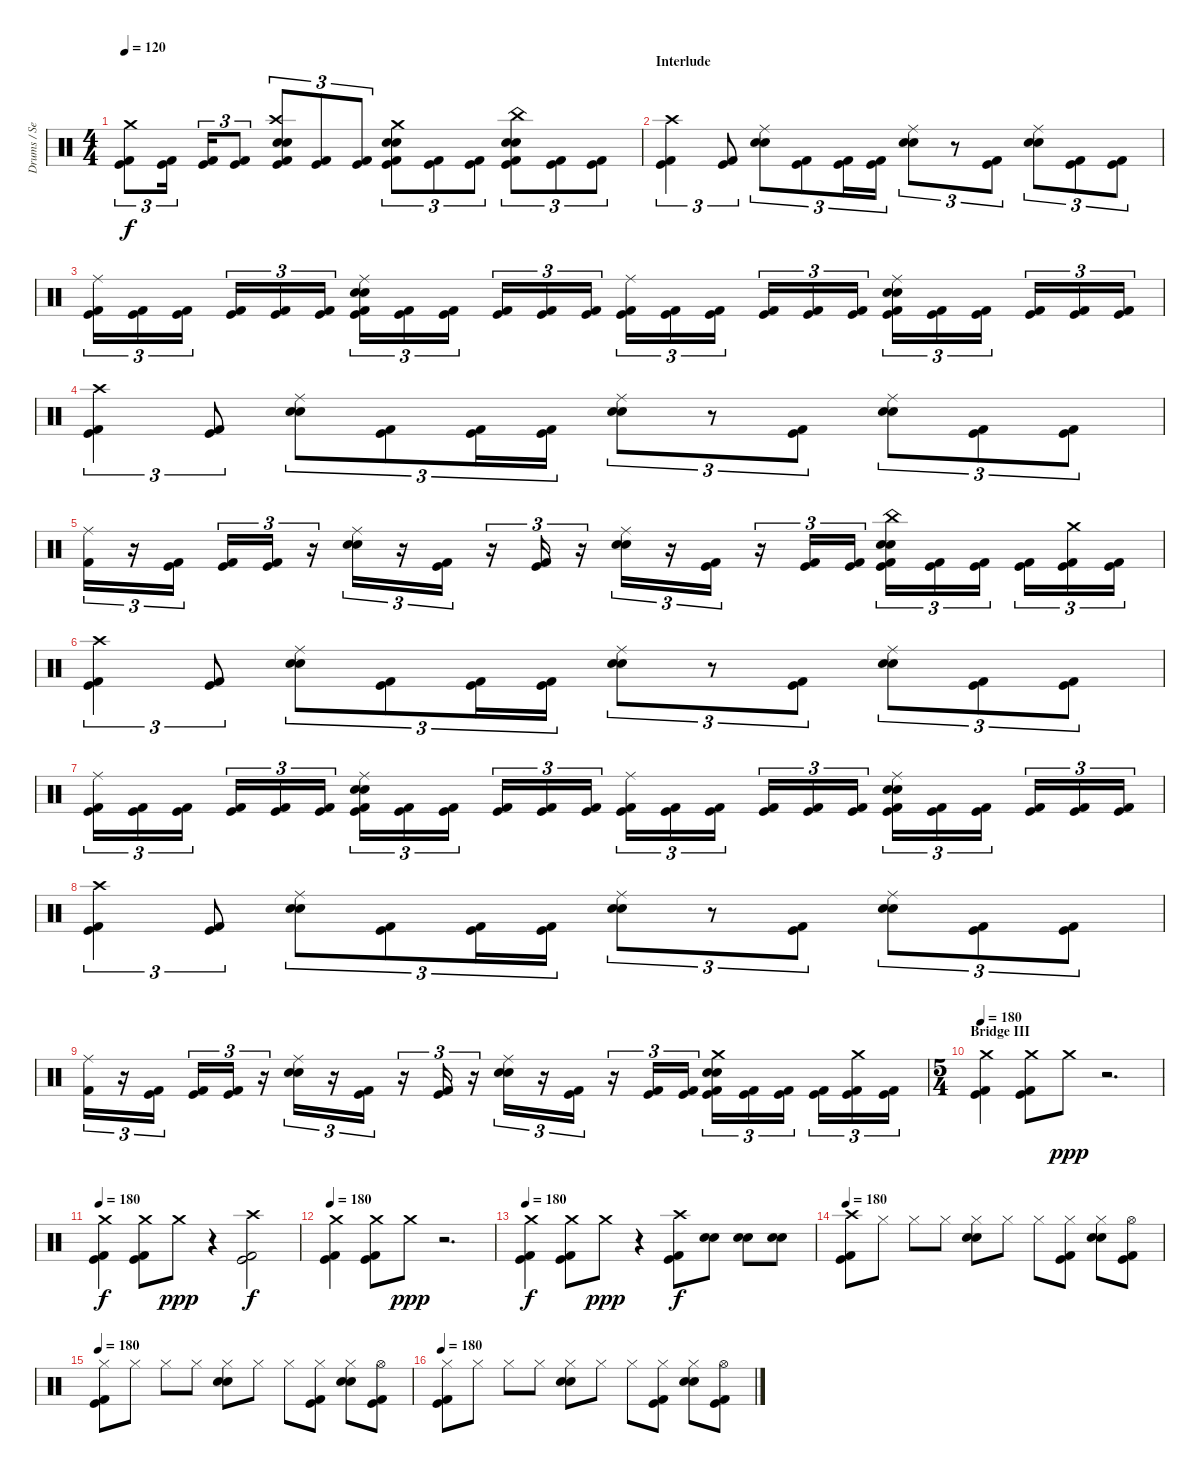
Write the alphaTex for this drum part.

\track ("Drums / Sean" "Drums / Se") {instrument percussion}
\staff {score}
\articulation defaults
\ts (4 4)
\tempo 120
\clef neutral
\ks c
("Crash medium (hit)" "Kick (hit)" "Kick (hit) 2").8{tu (3 2) dy f} ("Kick (hit)" "Kick (hit) 2").16{tu (3 2)} ("Kick (hit)" "Kick (hit) 2").16{tu (3 2)} ("Kick (hit)" "Kick (hit) 2").8{tu (3 2)} ("Crash high (hit)" "Electric Snare (hit)" "Snare (hit) 2" "Kick (hit)" "Kick (hit) 2").8{tu (3 2)} ("Kick (hit)" "Kick (hit) 2").8{tu (3 2)} ("Kick (hit)" "Kick (hit) 2").8{tu (3 2)} ("Crash medium (hit)" "Electric Snare (hit)" "Snare (hit) 2" "Kick (hit)" "Kick (hit) 2").8{tu (3 2)} ("Kick (hit)" "Kick (hit) 2").8{tu (3 2)} ("Kick (hit)" "Kick (hit) 2").8{tu (3 2)} ("China (hit)" "Electric Snare (hit)" "Snare (hit) 2" "Kick (hit)" "Kick (hit) 2").8{tu (3 2)} ("Kick (hit)" "Kick (hit) 2").8{tu (3 2)} ("Kick (hit)" "Kick (hit) 2").8{tu (3 2)} |
\section ("" "Interlude")
("Crash high (hit)" "Kick (hit)" "Kick (hit) 2").4{tu (3 2)} ("Kick (hit)" "Kick (hit) 2").8{tu (3 2)} ("Ride (middle)" "Electric Snare (hit)" "Snare (hit) 2").8{tu (3 2)} ("Kick (hit)" "Kick (hit) 2").8{tu (3 2)} ("Kick (hit)" "Kick (hit) 2").16{tu (3 2)} ("Kick (hit)" "Kick (hit) 2").16{tu (3 2)} ("Ride (middle)" "Electric Snare (hit)" "Snare (hit) 2").8{tu (3 2)} r.8{tu (3 2)} ("Kick (hit)" "Kick (hit) 2").8{tu (3 2)} ("Ride (middle)" "Electric Snare (hit)" "Snare (hit) 2").8{tu (3 2)} ("Kick (hit)" "Kick (hit) 2").8{tu (3 2)} ("Kick (hit)" "Kick (hit) 2").8{tu (3 2)} |
("Ride (middle)" "Kick (hit)" "Kick (hit) 2").16{tu (3 2)} ("Kick (hit)" "Kick (hit) 2").16{tu (3 2)} ("Kick (hit)" "Kick (hit) 2").16{tu (3 2)} ("Kick (hit)" "Kick (hit) 2").16{tu (3 2)} ("Kick (hit)" "Kick (hit) 2").16{tu (3 2)} ("Kick (hit)" "Kick (hit) 2").16{tu (3 2)} ("Ride (middle)" "Electric Snare (hit)" "Snare (hit) 2" "Kick (hit)" "Kick (hit) 2").16{tu (3 2)} ("Kick (hit)" "Kick (hit) 2").16{tu (3 2)} ("Kick (hit)" "Kick (hit) 2").16{tu (3 2)} ("Kick (hit)" "Kick (hit) 2").16{tu (3 2)} ("Kick (hit)" "Kick (hit) 2").16{tu (3 2)} ("Kick (hit)" "Kick (hit) 2").16{tu (3 2)} ("Ride (middle)" "Kick (hit)" "Kick (hit) 2").16{tu (3 2)} ("Kick (hit)" "Kick (hit) 2").16{tu (3 2)} ("Kick (hit)" "Kick (hit) 2").16{tu (3 2)} ("Kick (hit)" "Kick (hit) 2").16{tu (3 2)} ("Kick (hit)" "Kick (hit) 2").16{tu (3 2)} ("Kick (hit)" "Kick (hit) 2").16{tu (3 2)} ("Ride (middle)" "Electric Snare (hit)" "Snare (hit) 2" "Kick (hit)" "Kick (hit) 2").16{tu (3 2)} ("Kick (hit)" "Kick (hit) 2").16{tu (3 2)} ("Kick (hit)" "Kick (hit) 2").16{tu (3 2)} ("Kick (hit)" "Kick (hit) 2").16{tu (3 2)} ("Kick (hit)" "Kick (hit) 2").16{tu (3 2)} ("Kick (hit)" "Kick (hit) 2").16{tu (3 2)} |
("Crash high (hit)" "Kick (hit)" "Kick (hit) 2").4{tu (3 2)} ("Kick (hit)" "Kick (hit) 2").8{tu (3 2)} ("Ride (middle)" "Electric Snare (hit)" "Snare (hit) 2").8{tu (3 2)} ("Kick (hit)" "Kick (hit) 2").8{tu (3 2)} ("Kick (hit)" "Kick (hit) 2").16{tu (3 2)} ("Kick (hit)" "Kick (hit) 2").16{tu (3 2)} ("Ride (middle)" "Electric Snare (hit)" "Snare (hit) 2").8{tu (3 2)} r.8{tu (3 2)} ("Kick (hit)" "Kick (hit) 2").8{tu (3 2)} ("Ride (middle)" "Electric Snare (hit)" "Snare (hit) 2").8{tu (3 2)} ("Kick (hit)" "Kick (hit) 2").8{tu (3 2)} ("Kick (hit)" "Kick (hit) 2").8{tu (3 2)} |
("Ride (middle)" "Kick (hit) 2").16{tu (3 2)} r.16{tu (3 2)} ("Kick (hit)" "Kick (hit) 2").16{tu (3 2)} ("Kick (hit)" "Kick (hit) 2").16{tu (3 2)} ("Kick (hit)" "Kick (hit) 2").16{tu (3 2)} r.16{tu (3 2)} ("Ride (middle)" "Electric Snare (hit)" "Snare (hit) 2").16{tu (3 2)} r.16{tu (3 2)} ("Kick (hit)" "Kick (hit) 2").16{tu (3 2)} r.16{tu (3 2)} ("Kick (hit)" "Kick (hit) 2").16{tu (3 2)} r.16{tu (3 2)} ("Ride (middle)" "Electric Snare (hit)" "Snare (hit) 2").16{tu (3 2)} r.16{tu (3 2)} ("Kick (hit)" "Kick (hit) 2").16{tu (3 2)} r.16{tu (3 2)} ("Kick (hit)" "Kick (hit) 2").16{tu (3 2)} ("Kick (hit)" "Kick (hit) 2").16{tu (3 2)} ("China (hit)" "Electric Snare (hit)" "Snare (hit) 2" "Kick (hit)" "Kick (hit) 2").16{tu (3 2)} ("Kick (hit)" "Kick (hit) 2").16{tu (3 2)} ("Kick (hit)" "Kick (hit) 2").16{tu (3 2)} ("Kick (hit)" "Kick (hit) 2").16{tu (3 2)} ("Crash medium (hit)" "Kick (hit)" "Kick (hit) 2").16{tu (3 2)} ("Kick (hit)" "Kick (hit) 2").16{tu (3 2)} |
("Crash high (hit)" "Kick (hit)" "Kick (hit) 2").4{tu (3 2)} ("Kick (hit)" "Kick (hit) 2").8{tu (3 2)} ("Ride (middle)" "Electric Snare (hit)" "Snare (hit) 2").8{tu (3 2)} ("Kick (hit)" "Kick (hit) 2").8{tu (3 2)} ("Kick (hit)" "Kick (hit) 2").16{tu (3 2)} ("Kick (hit)" "Kick (hit) 2").16{tu (3 2)} ("Ride (middle)" "Electric Snare (hit)" "Snare (hit) 2").8{tu (3 2)} r.8{tu (3 2)} ("Kick (hit)" "Kick (hit) 2").8{tu (3 2)} ("Ride (middle)" "Electric Snare (hit)" "Snare (hit) 2").8{tu (3 2)} ("Kick (hit)" "Kick (hit) 2").8{tu (3 2)} ("Kick (hit)" "Kick (hit) 2").8{tu (3 2)} |
("Ride (middle)" "Kick (hit)" "Kick (hit) 2").16{tu (3 2)} ("Kick (hit)" "Kick (hit) 2").16{tu (3 2)} ("Kick (hit)" "Kick (hit) 2").16{tu (3 2)} ("Kick (hit)" "Kick (hit) 2").16{tu (3 2)} ("Kick (hit)" "Kick (hit) 2").16{tu (3 2)} ("Kick (hit)" "Kick (hit) 2").16{tu (3 2)} ("Ride (middle)" "Electric Snare (hit)" "Snare (hit) 2" "Kick (hit)" "Kick (hit) 2").16{tu (3 2)} ("Kick (hit)" "Kick (hit) 2").16{tu (3 2)} ("Kick (hit)" "Kick (hit) 2").16{tu (3 2)} ("Kick (hit)" "Kick (hit) 2").16{tu (3 2)} ("Kick (hit)" "Kick (hit) 2").16{tu (3 2)} ("Kick (hit)" "Kick (hit) 2").16{tu (3 2)} ("Ride (middle)" "Kick (hit)" "Kick (hit) 2").16{tu (3 2)} ("Kick (hit)" "Kick (hit) 2").16{tu (3 2)} ("Kick (hit)" "Kick (hit) 2").16{tu (3 2)} ("Kick (hit)" "Kick (hit) 2").16{tu (3 2)} ("Kick (hit)" "Kick (hit) 2").16{tu (3 2)} ("Kick (hit)" "Kick (hit) 2").16{tu (3 2)} ("Ride (middle)" "Electric Snare (hit)" "Snare (hit) 2" "Kick (hit)" "Kick (hit) 2").16{tu (3 2)} ("Kick (hit)" "Kick (hit) 2").16{tu (3 2)} ("Kick (hit)" "Kick (hit) 2").16{tu (3 2)} ("Kick (hit)" "Kick (hit) 2").16{tu (3 2)} ("Kick (hit)" "Kick (hit) 2").16{tu (3 2)} ("Kick (hit)" "Kick (hit) 2").16{tu (3 2)} |
("Crash high (hit)" "Kick (hit)" "Kick (hit) 2").4{tu (3 2)} ("Kick (hit)" "Kick (hit) 2").8{tu (3 2)} ("Ride (middle)" "Electric Snare (hit)" "Snare (hit) 2").8{tu (3 2)} ("Kick (hit)" "Kick (hit) 2").8{tu (3 2)} ("Kick (hit)" "Kick (hit) 2").16{tu (3 2)} ("Kick (hit)" "Kick (hit) 2").16{tu (3 2)} ("Ride (middle)" "Electric Snare (hit)" "Snare (hit) 2").8{tu (3 2)} r.8{tu (3 2)} ("Kick (hit)" "Kick (hit) 2").8{tu (3 2)} ("Ride (middle)" "Electric Snare (hit)" "Snare (hit) 2").8{tu (3 2)} ("Kick (hit)" "Kick (hit) 2").8{tu (3 2)} ("Kick (hit)" "Kick (hit) 2").8{tu (3 2)} |
("Ride (middle)" "Kick (hit) 2").16{tu (3 2)} r.16{tu (3 2)} ("Kick (hit)" "Kick (hit) 2").16{tu (3 2)} ("Kick (hit)" "Kick (hit) 2").16{tu (3 2)} ("Kick (hit)" "Kick (hit) 2").16{tu (3 2)} r.16{tu (3 2)} ("Ride (middle)" "Electric Snare (hit)" "Snare (hit) 2").16{tu (3 2)} r.16{tu (3 2)} ("Kick (hit)" "Kick (hit) 2").16{tu (3 2)} r.16{tu (3 2)} ("Kick (hit)" "Kick (hit) 2").16{tu (3 2)} r.16{tu (3 2)} ("Ride (middle)" "Electric Snare (hit)" "Snare (hit) 2").16{tu (3 2)} r.16{tu (3 2)} ("Kick (hit)" "Kick (hit) 2").16{tu (3 2)} r.16{tu (3 2)} ("Kick (hit)" "Kick (hit) 2").16{tu (3 2)} ("Kick (hit)" "Kick (hit) 2").16{tu (3 2)} ("Crash medium (hit)" "Electric Snare (hit)" "Snare (hit) 2" "Kick (hit)" "Kick (hit) 2").16{tu (3 2)} ("Kick (hit)" "Kick (hit) 2").16{tu (3 2)} ("Kick (hit)" "Kick (hit) 2").16{tu (3 2)} ("Kick (hit)" "Kick (hit) 2").16{tu (3 2)} ("Crash medium (hit)" "Kick (hit)" "Kick (hit) 2").16{tu (3 2)} ("Kick (hit)" "Kick (hit) 2").16{tu (3 2)} |
\ts (5 4)
\section ("" "Bridge III")
\tempo 180
("Crash medium (hit)" "Kick (hit)" "Kick (hit) 2").4 ("Crash medium (hit)" "Kick (hit)" "Kick (hit) 2").8 "Crash medium (hit)".8{dy ppp} r.2{d} |
\tempo 180
("Crash medium (hit)" "Kick (hit)" "Kick (hit) 2").4{dy f} ("Crash medium (hit)" "Kick (hit)" "Kick (hit) 2").8 "Crash medium (hit)".8{dy ppp} r.4 ("Crash high (hit)" "Kick (hit)" "Kick (hit) 2").2{dy f} |
\tempo 180
("Crash medium (hit)" "Kick (hit)" "Kick (hit) 2").4 ("Crash medium (hit)" "Kick (hit)" "Kick (hit) 2").8 "Crash medium (hit)".8{dy ppp} r.2{d} |
\tempo 180
("Crash medium (hit)" "Kick (hit)" "Kick (hit) 2").4{dy f} ("Crash medium (hit)" "Kick (hit)" "Kick (hit) 2").8 "Crash medium (hit)".8{dy ppp} r.4 ("Crash high (hit)" "Kick (hit)" "Kick (hit) 2").8{dy f} ("Electric Snare (hit)" "Snare (hit) 2").8 ("Electric Snare (hit)" "Snare (hit) 2").8 ("Electric Snare (hit)" "Snare (hit) 2").8 |
\tempo 180
("Crash high (hit)" "Kick (hit)" "Kick (hit) 2").8 "Hi-Hat (closed)".8 "Hi-Hat (closed)".8 "Hi-Hat (closed)".8 ("Hi-Hat (closed)" "Electric Snare (hit)" "Snare (hit) 2").8 "Hi-Hat (closed)".8 "Hi-Hat (closed)".8 ("Hi-Hat (closed)" "Kick (hit)" "Kick (hit) 2").8 ("Hi-Hat (closed)" "Electric Snare (hit)" "Snare (hit) 2").8 ("Hi-Hat (open)" "Kick (hit)" "Kick (hit) 2").8 |
\tempo 180
("Hi-Hat (closed)" "Kick (hit)" "Kick (hit) 2").8 "Hi-Hat (closed)".8 "Hi-Hat (closed)".8 "Hi-Hat (closed)".8 ("Hi-Hat (closed)" "Electric Snare (hit)" "Snare (hit) 2").8 "Hi-Hat (closed)".8 "Hi-Hat (closed)".8 ("Hi-Hat (closed)" "Kick (hit)" "Kick (hit) 2").8 ("Hi-Hat (closed)" "Electric Snare (hit)" "Snare (hit) 2").8 ("Hi-Hat (open)" "Kick (hit)" "Kick (hit) 2").8 |
\tempo 180
("Hi-Hat (closed)" "Kick (hit)" "Kick (hit) 2").8 "Hi-Hat (closed)".8 "Hi-Hat (closed)".8 "Hi-Hat (closed)".8 ("Hi-Hat (closed)" "Electric Snare (hit)" "Snare (hit) 2").8 "Hi-Hat (closed)".8 "Hi-Hat (closed)".8 ("Hi-Hat (closed)" "Kick (hit)" "Kick (hit) 2").8 ("Hi-Hat (closed)" "Electric Snare (hit)" "Snare (hit) 2").8 ("Hi-Hat (open)" "Kick (hit)" "Kick (hit) 2").8
